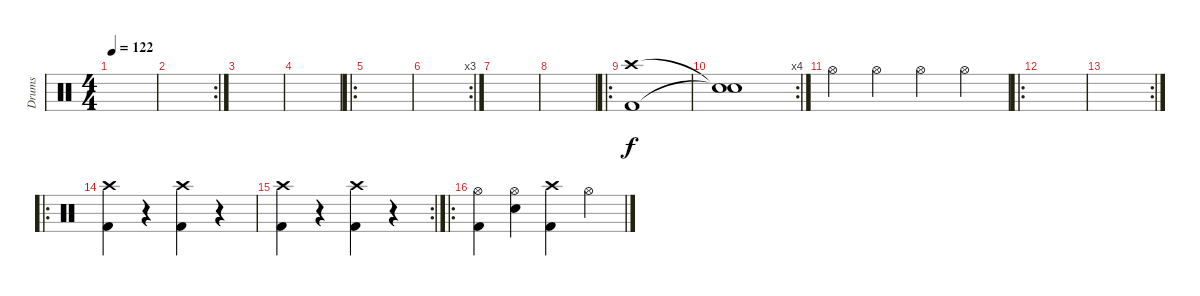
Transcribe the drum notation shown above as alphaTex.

\track ("Drums" "Drums") {instrument percussion}
\staff {score}
\articulation defaults
\ts (4 4)
\tempo 122
\clef neutral
\ks c
|
\rc 2
|
|
|
\ro
|
\rc 3
|
|
|
\ro
("Kick (hit) 2" "Crash high (hit)").1 |
\rc 4
("Snare (hit)"{t} "Snare (hit)"{t}).1 |
"Hi-Hat (open)".4 "Hi-Hat (open)".4 "Hi-Hat (open)".4 "Hi-Hat (open)".4 |
\ro
|
\rc 2
|
\ro
("Crash high (hit)" "Kick (hit) 2").4 r.4 ("Crash high (hit)" "Kick (hit) 2").4 r.4 |
\rc 2
("Crash high (hit)" "Kick (hit) 2").4 r.4 ("Crash high (hit)" "Kick (hit) 2").4 r.4 |
\ro
("Hi-Hat (open)" "Kick (hit) 2").4 ("Hi-Hat (open)" "Snare (hit) 2").4 ("Kick (hit) 2" "Crash high (hit)").4 "Hi-Hat (open)".4
